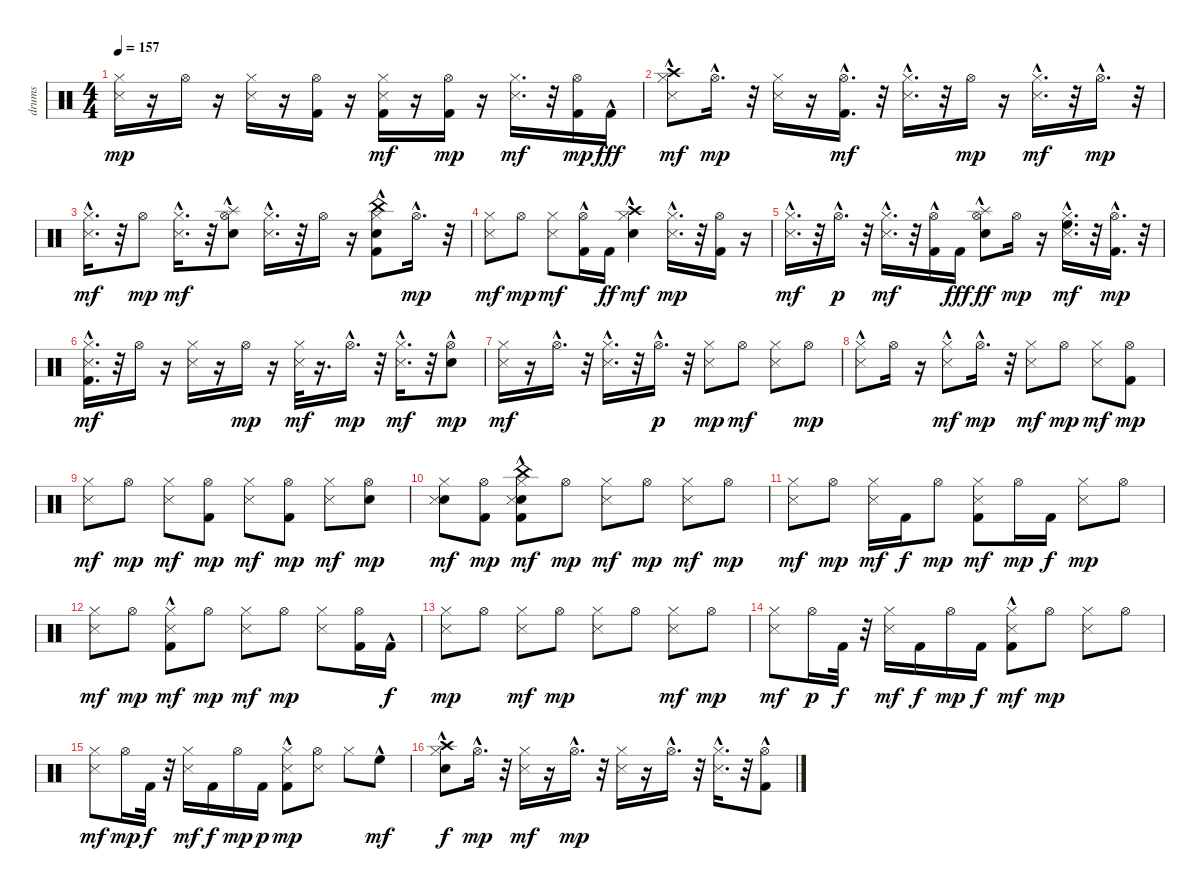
\track ("drums   " "drums   ") {instrument percussion}
\staff {score}
\articulation defaults
\ts (4 4)
\tempo 157
\clef neutral
\ks c
("Snare (side stick) 3" "Hi-Hat (closed)").16{dy mp} r.16 "Hi-Hat (open)".16 r.16 ("Snare (side stick) 3" "Hi-Hat (closed)").16 r.16 ("Kick (hit) 2" "Hi-Hat (open)").16 r.16 ("Kick (hit) 2" "Snare (side stick) 3" "Hi-Hat (closed)").16{dy mf} r.16 ("Kick (hit) 2" "Hi-Hat (open)").16{dy mp} r.16 ("Snare (side stick) 3" "Hi-Hat (closed)").16{d dy mf} r.32 ("Kick (hit) 2" "Hi-Hat (open)").16{dy mp} "Kick (hit) 2"{hac}.16{dy fff} |
("Snare (side stick) 3"{hac} "Hi-Hat (closed)"{hac} "Crash high (hit)").8{dy mf} "Hi-Hat (open)"{hac}.16{d dy mp} r.32 ("Snare (side stick) 3" "Hi-Hat (closed)").16 r.16 ("Kick (hit) 2"{hac} "Hi-Hat (open)"{hac}).16{d dy mf} r.32 ("Snare (side stick) 3" "Hi-Hat (closed)"{hac}).16{d} r.32 "Hi-Hat (open)".16{dy mp} r.16 ("Snare (side stick) 3"{hac} "Hi-Hat (closed)"{hac}).16{d dy mf} r.32 "Hi-Hat (open)"{hac}.16{d dy mp} r.32 |
("Snare (side stick) 3"{hac} "Hi-Hat (closed)"{hac}).16{d dy mf} r.32 "Hi-Hat (open)".8{dy mp} ("Snare (side stick) 3"{hac} "Hi-Hat (closed)"{hac}).16{d dy mf} r.32 ("Snare (hit) 2"{hac} "Hi-Hat (open)" "Splash (hit)").8 ("Snare (side stick) 3"{hac} "Hi-Hat (closed)"{hac}).16{d} r.32 "Hi-Hat (open)".16 r.16 ("Kick (hit) 2" "Snare (hit) 2"{hac} "Hi-Hat (closed)" "China (hit)").8 "Hi-Hat (open)"{hac}.16{d dy mp} r.32 |
("Snare (side stick) 3" "Hi-Hat (closed)").8{dy mf} "Hi-Hat (open)".8{dy mp} ("Snare (side stick) 3" "Hi-Hat (closed)").8{dy mf} ("Kick (hit) 2" "Hi-Hat (open)"{hac}).16 "Kick (hit) 2".16{dy ff} ("Snare (hit) 2"{hac} "Hi-Hat (closed)"{hac} "Crash high (hit)").4{dy mf} ("Snare (side stick) 3"{hac} "Hi-Hat (closed)"{hac}).16{d dy mp} r.32 ("Kick (hit) 2" "Hi-Hat (open)").16 r.16 |
("Snare (side stick) 3"{hac} "Hi-Hat (closed)"{hac}).16{d dy mf} r.32 "Hi-Hat (open)"{hac}.16{d dy p} r.32 ("Snare (side stick) 3"{hac} "Hi-Hat (closed)"{hac}).16{d dy mf} r.32 ("Kick (hit) 2" "Hi-Hat (open)"{hac}).16 "Kick (hit) 2".16{dy fff} ("Electric Snare (hit)"{hac} "Hi-Hat (open)" "Splash (hit)"{hac}).8{dy ff} "Hi-Hat (open)".16{dy mp} r.16 ("Snare (side stick) 3" "Hi-Hat (closed)" "High Floor Tom (hit)"{hac}).16{d dy mf} r.32 ("Kick (hit) 2" "Hi-Hat (open)"{hac}).16{d dy mp} r.32 |
("Kick (hit) 2" "Snare (side stick) 3" "Hi-Hat (closed)"{hac}).16{d dy mf} r.32 "Hi-Hat (open)".16 r.16 ("Snare (side stick) 3" "Hi-Hat (closed)").16 r.16 "Hi-Hat (open)".16{dy mp} r.16 ("Snare (side stick) 3" "Hi-Hat (closed)").32{dy mf} r.16{d} "Hi-Hat (open)"{hac}.16{d dy mp} r.32 ("Snare (side stick) 3"{hac} "Hi-Hat (closed)"{hac}).16{d dy mf} r.32 ("Snare (hit) 2" "Hi-Hat (open)"{hac}).8{dy mp} |
("Snare (side stick) 3" "Hi-Hat (closed)").16{dy mf} r.16 "Hi-Hat (open)"{hac}.16{d} r.32 ("Snare (side stick) 3"{hac} "Hi-Hat (closed)"{hac}).16{d} r.32 "Hi-Hat (open)"{hac}.16{d dy p} r.32 ("Snare (side stick) 3" "Hi-Hat (closed)").8{dy mp} "Hi-Hat (open)".8{dy mf} ("Snare (side stick) 3" "Hi-Hat (closed)").8 "Hi-Hat (open)".8{dy mp} |
("Snare (side stick) 3" "Hi-Hat (closed)"{hac}).8 "Hi-Hat (open)".16 r.16 ("Snare (side stick) 3" "Hi-Hat (closed)"{hac}).8{dy mf} "Hi-Hat (open)"{hac}.16{d dy mp} r.32 ("Snare (side stick) 3" "Hi-Hat (closed)").8{dy mf} "Hi-Hat (open)".8{dy mp} ("Snare (side stick) 3" "Hi-Hat (closed)").8{dy mf} ("Kick (hit) 2" "Hi-Hat (open)").8{dy mp} |
("Snare (side stick) 3" "Hi-Hat (closed)").8{dy mf} "Hi-Hat (open)".8{dy mp} ("Snare (side stick) 3" "Hi-Hat (closed)").8{dy mf} ("Kick (hit) 2" "Hi-Hat (open)").8{dy mp} ("Snare (side stick) 3" "Hi-Hat (closed)").8{dy mf} ("Kick (hit) 2" "Hi-Hat (open)").8{dy mp} ("Snare (side stick) 3" "Hi-Hat (closed)").8{dy mf} ("Snare (hit)" "Hi-Hat (open)").8{dy mp} |
("Snare (hit)" "Snare (side stick) 3" "Hi-Hat (closed)").8{dy mf} ("Kick (hit) 2" "Hi-Hat (open)").8{dy mp} ("Snare (hit)" "Kick (hit) 2"{hac} "Snare (side stick) 3" "Hi-Hat (closed)" "China (hit)"{hac}).8{dy mf} "Hi-Hat (open)".8{dy mp} ("Snare (side stick) 3" "Hi-Hat (closed)").8{dy mf} "Hi-Hat (open)".8{dy mp} ("Snare (side stick) 3" "Hi-Hat (closed)").8{dy mf} "Hi-Hat (open)".8{dy mp} |
("Snare (side stick) 3" "Hi-Hat (closed)").8{dy mf} "Hi-Hat (open)".8{dy mp} ("Snare (side stick) 3" "Hi-Hat (closed)").16{dy mf} "Kick (hit) 2".16{dy f} "Hi-Hat (open)".8{dy mp} ("Kick (hit) 2" "Snare (side stick) 3" "Hi-Hat (closed)").8{dy mf} "Hi-Hat (open)".16{dy mp} "Kick (hit) 2".16{dy f} ("Snare (side stick) 3" "Hi-Hat (closed)").8{dy mp} "Hi-Hat (open)".8 |
("Snare (side stick) 3" "Hi-Hat (closed)").8{dy mf} "Hi-Hat (open)".8{dy mp} ("Kick (hit) 2"{hac} "Snare (side stick) 3"{hac} "Hi-Hat (closed)").8{dy mf} "Hi-Hat (open)".8{dy mp} ("Snare (side stick) 3" "Hi-Hat (closed)").8{dy mf} "Hi-Hat (open)".8{dy mp} ("Snare (side stick) 3" "Hi-Hat (closed)").8 ("Kick (hit) 2" "Hi-Hat (open)").16 "Kick (hit) 2"{hac}.16{dy f} |
("Snare (side stick) 3" "Hi-Hat (closed)").8{dy mp} "Hi-Hat (open)".8 ("Snare (side stick) 3" "Hi-Hat (closed)").8{dy mf} "Hi-Hat (open)".8{dy mp} ("Snare (side stick) 3" "Hi-Hat (closed)").8 "Hi-Hat (open)".8 ("Snare (side stick) 3" "Hi-Hat (closed)").8{dy mf} "Hi-Hat (open)".8{dy mp} |
("Snare (side stick) 3" "Hi-Hat (closed)").8{dy mf} "Hi-Hat (open)".16{dy p} "Kick (hit) 2".32{dy f} r.32 ("Snare (side stick) 3" "Hi-Hat (closed)").16{dy mf} "Kick (hit) 2".16{dy f} "Hi-Hat (open)".16{dy mp} "Kick (hit) 2".16{dy f} ("Kick (hit) 2"{hac} "Snare (side stick) 3" "Hi-Hat (closed)").8{dy mf} "Hi-Hat (open)".8{dy mp} ("Snare (side stick) 3" "Hi-Hat (closed)").8 "Hi-Hat (open)".8 |
("Snare (side stick) 3" "Hi-Hat (closed)").8{dy mf} "Hi-Hat (open)".16{dy mp} "Kick (hit) 2".32{dy f} r.32 ("Snare (side stick) 3" "Hi-Hat (closed)").16{dy mf} "Kick (hit) 2".16{dy f} "Hi-Hat (open)".16{dy mp} "Kick (hit) 2".16{dy p} ("Kick (hit) 2"{hac} "Snare (side stick) 3" "Hi-Hat (closed)").8{dy mp} ("Snare (side stick) 3" "Hi-Hat (open)").8 "Hi-Hat (closed)".8 "High Floor Tom (hit)"{hac}.8{dy mf} |
("Snare (hit) 2"{hac} "Hi-Hat (closed)" "Crash high (hit)").8{dy f} "Hi-Hat (open)"{hac}.16{d dy mp} r.32 ("Snare (side stick) 3" "Hi-Hat (closed)").16{dy mf} r.16 "Hi-Hat (open)"{hac}.16{d dy mp} r.32 ("Snare (side stick) 3" "Hi-Hat (closed)").16 r.16 "Hi-Hat (open)"{hac}.16{d} r.32 ("Snare (side stick) 3" "Hi-Hat (closed)"{hac}).16{d} r.32 ("Kick (hit) 2"{hac} "Hi-Hat (open)").8
